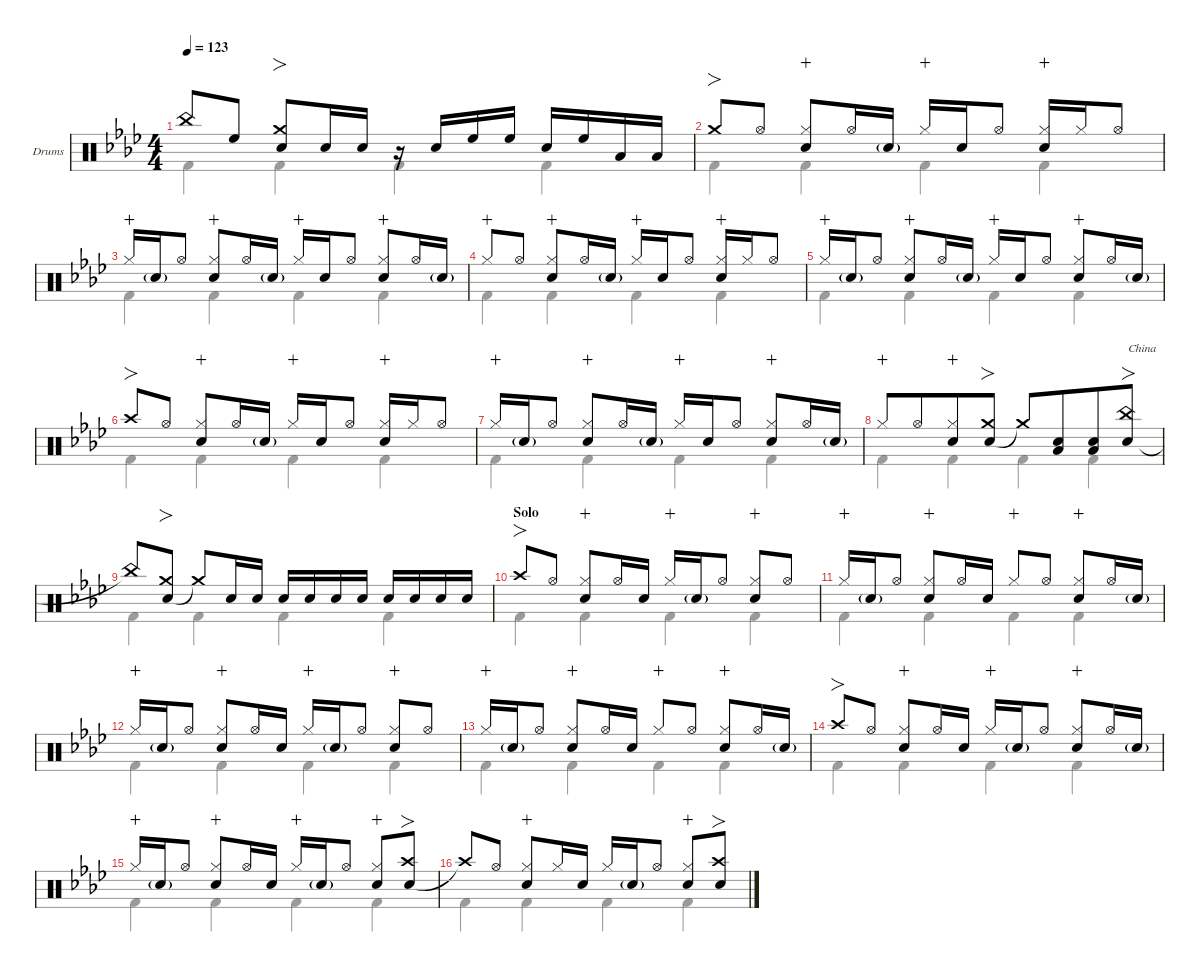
\defaultSystemsLayout 4
\hideDynamics
\bracketExtendMode nobrackets
\firstSystemTrackNameOrientation horizontal
\track ("Drums" "Drums") {defaultSystemsLayout 4 instrument percussion}
\staff {score}
\articulation defaults
\voice
\ts (4 4)
\tempo 123
\clef neutral
\scale
0.244461
\ks ab "China (hit)"{t acc forcenatural}.8{dy f beam Up} "High Floor Tom (hit)"{acc forcenatural}.8{beam Up}
("Snare (hit) 2"{acc forcenatural} "Crash medium (hit)"{acc forcenatural}).8{fo beam Up} "Snare (hit) 2"{acc forcenatural}.16{beam Up} "Snare (hit) 2"{acc forcenatural}.16{dy mf beam Up} r.16{beam Up} "Snare (hit) 2"{acc forcenatural}.16{beam Up} "High Floor Tom (hit)"{acc forcenatural}.16{dy f beam Up} "High Floor Tom (hit)"{acc forcenatural}.16{beam Up} "Snare (hit) 2"{acc forcenatural}.16{beam Up} "High Floor Tom (hit)"{acc forcenatural}.16{beam Up} "Low Tom (hit)"{acc forcenatural}.16{beam Up} "Low Tom (hit)"{acc forcenatural}.16{beam Up} |
\scale
0.265513 "Crash medium (hit)"{acc forcenatural}.8{fo beam Up} "Hi-Hat (open)"{acc forcenatural}.8{beam Up} ("Snare (hit) 2"{acc forcenatural} "Hi-Hat (closed)"{acc forcenatural}).8{wahc beam Up beam merge} "Hi-Hat (open)"{acc forcenatural}.16{beam Up} "Snare (hit) 2"{g acc forcenatural}.16{dy mf beam Up} "Hi-Hat (closed)"{acc forcenatural}.16{dy mp wahc beam Up} "Snare (hit) 2"{acc forcenatural}.16{dy f beam Up} "Hi-Hat (open)"{acc forcenatural}.8{beam Up} ("Snare (hit) 2"{acc forcenatural} "Hi-Hat (closed)"{acc forcenatural}).16{wahc beam Up} "Hi-Hat (closed)"{acc forcenatural}.16{beam Up} "Hi-Hat (open)"{acc forcenatural}.8{beam Up} |
\scale
0.245566 "Hi-Hat (closed)"{acc forcenatural}.16{dy mp wahc beam Up} "Snare (hit) 2"{g acc forcenatural}.16{dy mf beam Up} "Hi-Hat (open)"{acc forcenatural}.8{dy f beam Up} ("Snare (hit) 2"{acc forcenatural} "Hi-Hat (closed)"{acc forcenatural}).8{wahc beam Up beam merge} "Hi-Hat (open)"{acc forcenatural}.16{beam Up} "Snare (hit) 2"{g acc forcenatural}.16{dy mf beam Up} "Hi-Hat (closed)"{acc forcenatural}.16{dy mp wahc beam Up} "Snare (hit) 2"{acc forcenatural}.16{dy f beam Up} "Hi-Hat (open)"{acc forcenatural}.8{beam Up} ("Snare (hit) 2"{acc forcenatural} "Hi-Hat (closed)"{acc forcenatural}).8{wahc beam Up beam merge} "Hi-Hat (open)"{acc forcenatural}.16{beam Up} "Snare (hit) 2"{g acc forcenatural}.16{dy mf beam Up} |
\scale
0.244461 "Hi-Hat (closed)"{acc forcenatural}.8{dy mp wahc beam Up beam merge} "Hi-Hat (open)"{acc forcenatural}.8{dy f beam Up beam split} ("Snare (hit) 2"{acc forcenatural} "Hi-Hat (closed)"{acc forcenatural}).8{wahc beam Up beam merge} "Hi-Hat (open)"{acc forcenatural}.16{beam Up} "Snare (hit) 2"{g acc forcenatural}.16{dy mf beam Up} "Hi-Hat (closed)"{acc forcenatural}.16{dy mp wahc beam Up} "Snare (hit) 2"{acc forcenatural}.16{dy f beam Up} "Hi-Hat (open)"{acc forcenatural}.8{beam Up} ("Snare (hit) 2"{acc forcenatural} "Hi-Hat (closed)"{acc forcenatural}).16{wahc beam Up} "Hi-Hat (closed)"{acc forcenatural}.16{beam Up} "Hi-Hat (open)"{acc forcenatural}.8{beam Up} |
\scale
0.24446 "Hi-Hat (closed)"{acc forcenatural}.16{dy mp wahc beam Up} "Snare (hit) 2"{g acc forcenatural}.16{dy mf beam Up} "Hi-Hat (open)"{acc forcenatural}.8{dy f beam Up} ("Snare (hit) 2"{acc forcenatural} "Hi-Hat (closed)"{acc forcenatural}).8{wahc beam Up beam merge} "Hi-Hat (open)"{acc forcenatural}.16{beam Up} "Snare (hit) 2"{g acc forcenatural}.16{dy mf beam Up} "Hi-Hat (closed)"{acc forcenatural}.16{dy mp wahc beam Up} "Snare (hit) 2"{acc forcenatural}.16{dy f beam Up} "Hi-Hat (open)"{acc forcenatural}.8{beam Up} ("Snare (hit) 2"{acc forcenatural} "Hi-Hat (closed)"{acc forcenatural}).8{wahc beam Up beam merge} "Hi-Hat (open)"{acc forcenatural}.16{beam Up} "Snare (hit) 2"{g acc forcenatural}.16{dy mf beam Up} |
\scale
0.265513 "Crash high (hit)"{acc forcenatural}.8{fo dy f beam Up} "Hi-Hat (open)"{acc forcenatural}.8{beam Up} ("Snare (hit) 2"{acc forcenatural} "Hi-Hat (closed)"{acc forcenatural}).8{wahc beam Up beam merge} "Hi-Hat (open)"{acc forcenatural}.16{beam Up} "Snare (hit) 2"{g acc forcenatural}.16{dy mf beam Up} "Hi-Hat (closed)"{acc forcenatural}.16{dy mp wahc beam Up} "Snare (hit) 2"{acc forcenatural}.16{dy f beam Up} "Hi-Hat (open)"{acc forcenatural}.8{beam Up} ("Snare (hit) 2"{acc forcenatural} "Hi-Hat (closed)"{acc forcenatural}).16{wahc beam Up} "Hi-Hat (closed)"{acc forcenatural}.16{beam Up} "Hi-Hat (open)"{acc forcenatural}.8{beam Up} |
\scale
0.245566 "Hi-Hat (closed)"{acc forcenatural}.16{dy mp wahc beam Up} "Snare (hit) 2"{g acc forcenatural}.16{dy mf beam Up} "Hi-Hat (open)"{acc forcenatural}.8{dy f beam Up} ("Snare (hit) 2"{acc forcenatural} "Hi-Hat (closed)"{acc forcenatural}).8{wahc beam Up beam merge} "Hi-Hat (open)"{acc forcenatural}.16{beam Up} "Snare (hit) 2"{g acc forcenatural}.16{dy mf beam Up} "Hi-Hat (closed)"{acc forcenatural}.16{dy mp wahc beam Up} "Snare (hit) 2"{acc forcenatural}.16{dy f beam Up} "Hi-Hat (open)"{acc forcenatural}.8{beam Up} ("Snare (hit) 2"{acc forcenatural} "Hi-Hat (closed)"{acc forcenatural}).8{wahc beam Up beam merge} "Hi-Hat (open)"{acc forcenatural}.16{beam Up} "Snare (hit) 2"{g acc forcenatural}.16{dy mf beam Up} |
\scale
0.24446 "Hi-Hat (closed)"{acc forcenatural}.8{dy mp wahc beam Up beam merge} "Hi-Hat (open)"{acc forcenatural}.8{dy f beam Up beam merge} ("Hi-Hat (closed)"{acc forcenatural} "Snare (hit) 2"{acc forcenatural}).8{wahc beam Up beam merge} ("Snare (hit) 2"{acc forcenatural} "Crash medium (hit)"{acc forcenatural}).8{fo beam Up} "Crash medium (hit)"{t acc forcenatural}.8{beam Up beam merge} ("Snare (hit) 2"{acc forcenatural} "Low Tom (hit)"{acc forcenatural}).8{beam Up beam merge} ("Snare (hit) 2"{acc forcenatural} "Low Tom (hit)"{acc forcenatural}).8{beam Up beam merge} ("Snare (hit) 2"{acc forcenatural} "China (hit)"{acc forcenatural}).8{fo txt "China" beam Up} |
\scale
0.244461 "China (hit)"{t acc forcenatural}.8{beam Up} ("Snare (hit) 2"{acc forcenatural} "Crash medium (hit)"{acc forcenatural}).8{fo beam Up} "Crash medium (hit)"{t acc forcenatural}.8{beam Up} "Snare (hit) 2"{acc forcenatural}.16{beam Up} "Snare (hit) 2"{acc forcenatural}.16{dy mf beam Up} "Snare (hit) 2"{acc forcenatural}.16{dy f beam Up} "Snare (hit) 2"{acc forcenatural}.16{dy mf beam Up} "Snare (hit) 2"{acc forcenatural}.16{dy f beam Up} "Snare (hit) 2"{acc forcenatural}.16{dy mf beam Up} "Snare (hit) 2"{acc forcenatural}.16{dy f beam Up} "Snare (hit) 2"{acc forcenatural}.16{dy mf beam Up} "Snare (hit) 2"{acc forcenatural}.16{dy f beam Up} "Snare (hit) 2"{acc forcenatural}.16{dy mf beam Up} |
\section ("" "Solo")
\scale
0.266618 "Crash high (hit)"{acc forcenatural}.8{fo dy f beam Up} "Hi-Hat (open)"{acc forcenatural}.8{beam Up} ("Snare (hit) 2"{acc forcenatural} "Hi-Hat (closed)"{acc forcenatural}).8{wahc beam Up beam merge} "Hi-Hat (open)"{acc forcenatural}.16{beam Up} "Snare (hit) 2"{acc forcenatural}.16{dy mf beam Up} "Hi-Hat (closed)"{acc forcenatural}.16{dy mp wahc beam Up} "Snare (hit) 2"{g acc forcenatural}.16{dy mf beam Up} "Hi-Hat (open)"{acc forcenatural}.8{dy f beam Up} ("Snare (hit) 2"{acc forcenatural} "Hi-Hat (closed)"{acc forcenatural}).8{wahc beam Up} "Hi-Hat (open)"{acc forcenatural}.8{beam Up} |
\scale
0.244461 "Hi-Hat (closed)"{acc forcenatural}.16{dy mp wahc beam Up} "Snare (hit) 2"{g acc forcenatural}.16{dy mf beam Up} "Hi-Hat (open)"{acc forcenatural}.8{dy f beam Up} ("Snare (hit) 2"{acc forcenatural} "Hi-Hat (closed)"{acc forcenatural}).8{wahc beam Up beam merge} "Hi-Hat (open)"{acc forcenatural}.16{beam Up} "Snare (hit) 2"{acc forcenatural}.16{dy mf beam Up} "Hi-Hat (closed)"{acc forcenatural}.8{dy mp wahc beam Up} "Hi-Hat (open)"{acc forcenatural}.8{dy f beam Up} ("Snare (hit) 2"{acc forcenatural} "Hi-Hat (closed)"{acc forcenatural}).8{wahc beam Up} "Hi-Hat (open)"{acc forcenatural}.16{beam Up} "Snare (hit) 2"{g acc forcenatural}.16{dy mf beam Up} |
\scale
0.24446 "Hi-Hat (closed)"{acc forcenatural}.16{dy mp wahc beam Up} "Snare (hit) 2"{g acc forcenatural}.16{dy mf beam Up} "Hi-Hat (open)"{acc forcenatural}.8{dy f beam Up} ("Snare (hit) 2"{acc forcenatural} "Hi-Hat (closed)"{acc forcenatural}).8{wahc beam Up beam merge} "Hi-Hat (open)"{acc forcenatural}.16{beam Up} "Snare (hit) 2"{acc forcenatural}.16{dy mf beam Up} "Hi-Hat (closed)"{acc forcenatural}.16{dy mp wahc beam Up} "Snare (hit) 2"{g acc forcenatural}.16{dy mf beam Up} "Hi-Hat (open)"{acc forcenatural}.8{dy f beam Up} ("Snare (hit) 2"{acc forcenatural} "Hi-Hat (closed)"{acc forcenatural}).8{wahc beam Up} "Hi-Hat (open)"{acc forcenatural}.8{beam Up} |
\scale
0.244461 "Hi-Hat (closed)"{acc forcenatural}.16{dy mp wahc beam Up} "Snare (hit) 2"{g acc forcenatural}.16{dy mf beam Up} "Hi-Hat (open)"{acc forcenatural}.8{dy f beam Up} ("Snare (hit) 2"{acc forcenatural} "Hi-Hat (closed)"{acc forcenatural}).8{wahc beam Up beam merge} "Hi-Hat (open)"{acc forcenatural}.16{beam Up} "Snare (hit) 2"{acc forcenatural}.16{dy mf beam Up} "Hi-Hat (closed)"{acc forcenatural}.8{dy mp wahc beam Up} "Hi-Hat (open)"{acc forcenatural}.8{dy f beam Up} ("Snare (hit) 2"{acc forcenatural} "Hi-Hat (closed)"{acc forcenatural}).8{wahc beam Up} "Hi-Hat (open)"{acc forcenatural}.16{beam Up} "Snare (hit) 2"{g acc forcenatural}.16{dy mf beam Up} |
\scale
0.266618 "Crash high (hit)"{acc forcenatural}.8{fo dy f beam Up} "Hi-Hat (open)"{acc forcenatural}.8{beam Up} ("Snare (hit) 2"{acc forcenatural} "Hi-Hat (closed)"{acc forcenatural}).8{wahc beam Up beam merge} "Hi-Hat (open)"{acc forcenatural}.16{beam Up} "Snare (hit) 2"{acc forcenatural}.16{dy mf beam Up} "Hi-Hat (closed)"{acc forcenatural}.16{dy mp wahc beam Up} "Snare (hit) 2"{g acc forcenatural}.16{dy mf beam Up} "Hi-Hat (open)"{acc forcenatural}.8{dy f beam Up} ("Snare (hit) 2"{acc forcenatural} "Hi-Hat (closed)"{acc forcenatural}).8{wahc beam Up} "Hi-Hat (open)"{acc forcenatural}.16{beam Up} "Snare (hit) 2"{g acc forcenatural}.16{dy mf beam Up} |
\scale
0.244461 "Hi-Hat (closed)"{acc forcenatural}.16{dy mp wahc beam Up} "Snare (hit) 2"{g acc forcenatural}.16{dy mf beam Up} "Hi-Hat (open)"{acc forcenatural}.8{dy f beam Up} ("Snare (hit) 2"{acc forcenatural} "Hi-Hat (closed)"{acc forcenatural}).8{wahc beam Up beam merge} "Hi-Hat (open)"{acc forcenatural}.16{beam Up} "Snare (hit) 2"{acc forcenatural}.16{dy mf beam Up} "Hi-Hat (closed)"{acc forcenatural}.16{dy mp wahc beam Up} "Snare (hit) 2"{g acc forcenatural}.16{dy mf beam Up} "Hi-Hat (open)"{acc forcenatural}.8{dy f beam Up} ("Snare (hit) 2"{acc forcenatural} "Hi-Hat (closed)"{acc forcenatural}).8{wahc beam Up} ("Snare (hit) 2"{acc forcenatural} "Crash high (hit)"{acc forcenatural}).8{fo beam Up} |
\scale
0.24446 "Crash high (hit)"{t acc forcenatural}.8{beam Up} "Hi-Hat (open)"{acc forcenatural}.8{beam Up} ("Snare (hit) 2"{acc forcenatural} "Hi-Hat (closed)"{acc forcenatural}).8{wahc beam Up beam merge} "Hi-Hat (closed)"{acc forcenatural}.16{beam Up} "Snare (hit) 2"{acc forcenatural}.16{dy mf beam Up} "Hi-Hat (closed)"{acc forcenatural}.16{dy f beam Up} "Snare (hit) 2"{g acc forcenatural}.16{dy mf beam Up} "Hi-Hat (open)"{acc forcenatural}.8{dy f beam Up} ("Snare (hit) 2"{acc forcenatural} "Hi-Hat (closed)"{acc forcenatural}).8{wahc beam Up} ("Snare (hit) 2"{acc forcenatural} "Crash high (hit)"{acc forcenatural}).8{fo beam Up}
\voice
\clef neutral
\ottava regular
\simile none
\scale
0.244461
\ks ab "Kick (hit) 2"{acc forcenatural}.4{dy f beam Down} "Kick (hit) 2"{acc forcenatural}.4{beam Down} "Kick (hit) 2"{acc forcenatural}.4{beam Down} "Kick (hit) 2"{acc forcenatural}.4{beam Down}
|
\scale
0.265513 "Kick (hit) 2"{acc forcenatural}.4{beam Down} "Kick (hit) 2"{acc forcenatural}.4{beam Down} "Kick (hit) 2"{acc forcenatural}.4{beam Down} "Kick (hit) 2"{acc forcenatural}.4{beam Down} |
\scale
0.245566 "Kick (hit) 2"{acc forcenatural}.4{beam Down} "Kick (hit) 2"{acc forcenatural}.4{beam Down} "Kick (hit) 2"{acc forcenatural}.4{beam Down} "Kick (hit) 2"{acc forcenatural}.4{beam Down} |
\scale
0.244461 "Kick (hit) 2"{acc forcenatural}.4{beam Down} "Kick (hit) 2"{acc forcenatural}.4{beam Down} "Kick (hit) 2"{acc forcenatural}.4{beam Down} "Kick (hit) 2"{acc forcenatural}.4{beam Down} |
\scale
0.24446 "Kick (hit) 2"{acc forcenatural}.4{beam Down} "Kick (hit) 2"{acc forcenatural}.4{beam Down} "Kick (hit) 2"{acc forcenatural}.4{beam Down} "Kick (hit) 2"{acc forcenatural}.4{beam Down} |
\scale
0.265513 "Kick (hit) 2"{acc forcenatural}.4{beam Down} "Kick (hit) 2"{acc forcenatural}.4{beam Down} "Kick (hit) 2"{acc forcenatural}.4{beam Down} "Kick (hit) 2"{acc forcenatural}.4{beam Down} |
\scale
0.245566 "Kick (hit) 2"{acc forcenatural}.4{beam Down} "Kick (hit) 2"{acc forcenatural}.4{beam Down} "Kick (hit) 2"{acc forcenatural}.4{beam Down} "Kick (hit) 2"{acc forcenatural}.4{beam Down} |
\scale
0.24446 "Kick (hit) 2"{acc forcenatural}.4{beam Down} "Kick (hit) 2"{acc forcenatural}.4{beam Down} "Kick (hit) 2"{acc forcenatural}.4{beam Down} "Kick (hit) 2"{acc forcenatural}.4{beam Down} |
\scale
0.244461 "Kick (hit) 2"{acc forcenatural}.4{beam Down} "Kick (hit) 2"{acc forcenatural}.4{beam Down} "Kick (hit) 2"{acc forcenatural}.4{beam Down} "Kick (hit) 2"{acc forcenatural}.4{beam Down} |
\scale
0.266618 "Kick (hit) 2"{acc forcenatural}.4{beam Down} "Kick (hit) 2"{acc forcenatural}.4{beam Down} "Kick (hit) 2"{acc forcenatural}.4{beam Down} "Kick (hit) 2"{acc forcenatural}.4{beam Down} |
\scale
0.244461 "Kick (hit) 2"{acc forcenatural}.4{beam Down} "Kick (hit) 2"{acc forcenatural}.4{beam Down} "Kick (hit) 2"{acc forcenatural}.4{beam Down} "Kick (hit) 2"{acc forcenatural}.4{beam Down} |
\scale
0.24446 "Kick (hit) 2"{acc forcenatural}.4{beam Down} "Kick (hit) 2"{acc forcenatural}.4{beam Down} "Kick (hit) 2"{acc forcenatural}.4{beam Down} "Kick (hit) 2"{acc forcenatural}.4{beam Down} |
\scale
0.244461 "Kick (hit) 2"{acc forcenatural}.4{beam Down} "Kick (hit) 2"{acc forcenatural}.4{beam Down} "Kick (hit) 2"{acc forcenatural}.4{beam Down} "Kick (hit) 2"{acc forcenatural}.4{beam Down} |
\scale
0.266618 "Kick (hit) 2"{acc forcenatural}.4{beam Down} "Kick (hit) 2"{acc forcenatural}.4{beam Down} "Kick (hit) 2"{acc forcenatural}.4{beam Down} "Kick (hit) 2"{acc forcenatural}.4{beam Down} |
\scale
0.244461 "Kick (hit) 2"{acc forcenatural}.4{beam Down} "Kick (hit) 2"{acc forcenatural}.4{beam Down} "Kick (hit) 2"{acc forcenatural}.4{beam Down} "Kick (hit) 2"{acc forcenatural}.4{beam Down} |
\scale
0.24446 "Kick (hit) 2"{acc forcenatural}.4{beam Down} "Kick (hit) 2"{acc forcenatural}.4{beam Down} "Kick (hit) 2"{acc forcenatural}.4{beam Down} "Kick (hit) 2"{acc forcenatural}.4{beam Down}
